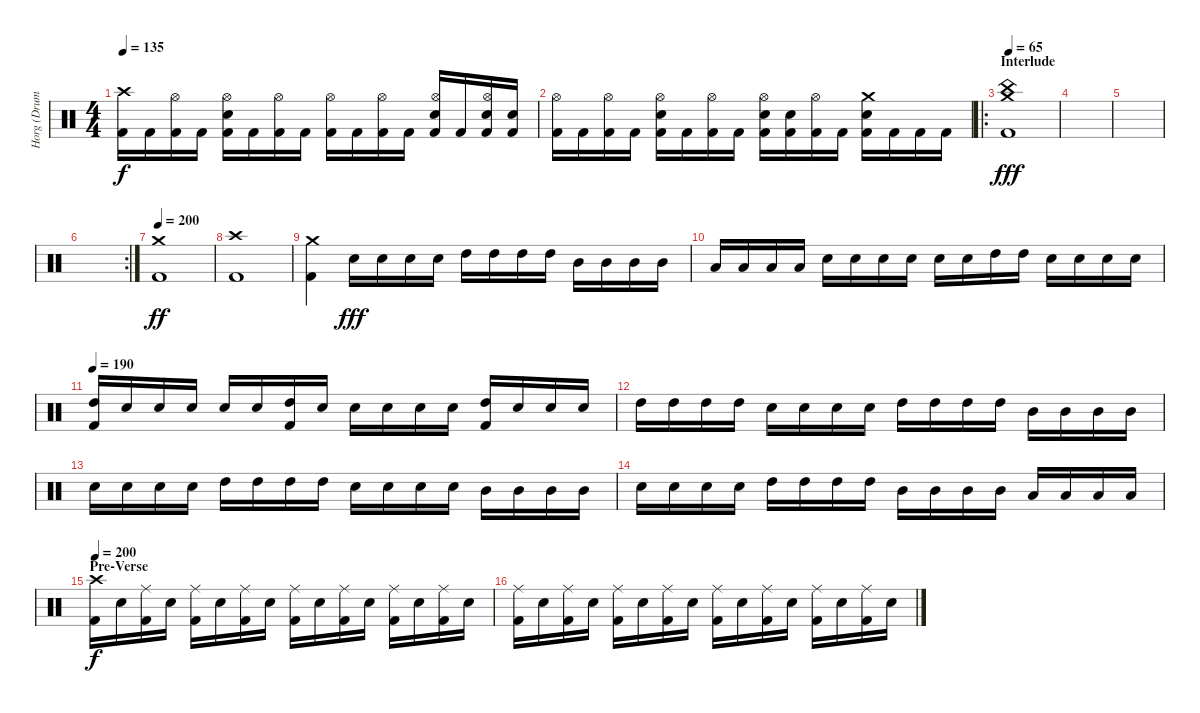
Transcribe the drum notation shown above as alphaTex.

\track ("Horg (Drums)" "Horg (Drum") {instrument percussion}
\staff {score}
\articulation defaults
\ts (4 4)
\tempo 135
\clef neutral
\ks c
("Crash high (hit)" "Kick (hit) 2").16{dy f} "Kick (hit) 2".16 ("Hi-Hat (open)" "Kick (hit) 2").16 "Kick (hit) 2".16 ("Hi-Hat (open)" "Electric Snare (hit)" "Kick (hit) 2").16 "Kick (hit) 2".16 ("Hi-Hat (open)" "Kick (hit) 2").16 "Kick (hit) 2".16 ("Hi-Hat (open)" "Kick (hit) 2").16 "Kick (hit) 2".16 ("Hi-Hat (open)" "Kick (hit) 2").16 "Kick (hit) 2".16 ("Hi-Hat (open)" "Electric Snare (hit)" "Kick (hit) 2").16 "Kick (hit) 2".16 ("Hi-Hat (open)" "Electric Snare (hit)" "Kick (hit) 2").16 ("Electric Snare (hit)" "Kick (hit) 2").16 |
("Hi-Hat (open)" "Kick (hit) 2").16 "Kick (hit) 2".16 ("Hi-Hat (open)" "Kick (hit) 2").16 "Kick (hit) 2".16 ("Hi-Hat (open)" "Electric Snare (hit)" "Kick (hit) 2").16 "Kick (hit) 2".16 ("Hi-Hat (open)" "Kick (hit) 2").16 "Kick (hit) 2".16 ("Hi-Hat (open)" "Electric Snare (hit)" "Kick (hit) 2").16 ("Electric Snare (hit)" "Kick (hit) 2").16 ("Hi-Hat (open)" "Kick (hit) 2").16 "Kick (hit) 2".16 ("Crash medium (hit)" "Electric Snare (hit)" "Kick (hit) 2").16 "Kick (hit) 2".16 "Kick (hit) 2".16 "Kick (hit) 2".16 |
\ro
\section ("" "Interlude")
\tempo 65
("Crash medium (hit)" "China (hit)" "Kick (hit) 2").1{dy fff} |
|
|
\rc 2
|
\tempo 200
("Crash medium (hit)" "Kick (hit) 2").1{dy ff} |
("Crash high (hit)" "Kick (hit) 2").1 |
("Crash medium (hit)" "Kick (hit) 2").4 "Electric Snare (hit)".16{dy fff} "Electric Snare (hit)".16 "Electric Snare (hit)".16 "Electric Snare (hit)".16 "High Tom (hit)".16 "High Tom (hit)".16 "High Tom (hit)".16 "High Tom (hit)".16 "Mid Tom (hit)".16 "Mid Tom (hit)".16 "Mid Tom (hit)".16 "Mid Tom (hit)".16 |
"Low Tom (hit)".16 "Low Tom (hit)".16 "Low Tom (hit)".16 "Low Tom (hit)".16 "Electric Snare (hit)".16 "Electric Snare (hit)".16 "Electric Snare (hit)".16 "Electric Snare (hit)".16 "Electric Snare (hit)".16 "Electric Snare (hit)".16 "High Tom (hit)".16 "High Tom (hit)".16 "Electric Snare (hit)".16 "Electric Snare (hit)".16 "Electric Snare (hit)".16 "Electric Snare (hit)".16 |
\tempo 190
("High Tom (hit)" "Kick (hit) 2").16 "Electric Snare (hit)".16 "Electric Snare (hit)".16 "Electric Snare (hit)".16 "Electric Snare (hit)".16 "Electric Snare (hit)".16 ("High Tom (hit)" "Kick (hit) 2").16 "Electric Snare (hit)".16 "Electric Snare (hit)".16 "Electric Snare (hit)".16 "Electric Snare (hit)".16 "Electric Snare (hit)".16 ("High Tom (hit)" "Kick (hit) 2").16 "Electric Snare (hit)".16 "Electric Snare (hit)".16 "Electric Snare (hit)".16 |
"High Tom (hit)".16 "High Tom (hit)".16 "High Tom (hit)".16 "High Tom (hit)".16 "Electric Snare (hit)".16 "Electric Snare (hit)".16 "Electric Snare (hit)".16 "Electric Snare (hit)".16 "High Tom (hit)".16 "High Tom (hit)".16 "High Tom (hit)".16 "High Tom (hit)".16 "Mid Tom (hit)".16 "Mid Tom (hit)".16 "Mid Tom (hit)".16 "Mid Tom (hit)".16 |
"Electric Snare (hit)".16 "Electric Snare (hit)".16 "Electric Snare (hit)".16 "Electric Snare (hit)".16 "High Tom (hit)".16 "High Tom (hit)".16 "High Tom (hit)".16 "High Tom (hit)".16 "Electric Snare (hit)".16 "Electric Snare (hit)".16 "Electric Snare (hit)".16 "Electric Snare (hit)".16 "Mid Tom (hit)".16 "Mid Tom (hit)".16 "Mid Tom (hit)".16 "Mid Tom (hit)".16 |
"Electric Snare (hit)".16 "Electric Snare (hit)".16 "Electric Snare (hit)".16 "Electric Snare (hit)".16 "High Tom (hit)".16 "High Tom (hit)".16 "High Tom (hit)".16 "High Tom (hit)".16 "Mid Tom (hit)".16 "Mid Tom (hit)".16 "Mid Tom (hit)".16 "Mid Tom (hit)".16 "Low Tom (hit)".16 "Low Tom (hit)".16 "Low Tom (hit)".16 "Low Tom (hit)".16 |
\section ("" "Pre-Verse")
\tempo 200
("Crash high (hit)" "Kick (hit) 2").16{dy f} "Electric Snare (hit)".16 ("Ride (middle)" "Kick (hit) 2").16 "Electric Snare (hit)".16 ("Ride (middle)" "Kick (hit) 2").16 "Electric Snare (hit)".16 ("Ride (middle)" "Kick (hit) 2").16 "Electric Snare (hit)".16 ("Ride (middle)" "Kick (hit) 2").16 "Electric Snare (hit)".16 ("Ride (middle)" "Kick (hit) 2").16 "Electric Snare (hit)".16 ("Ride (middle)" "Kick (hit) 2").16 "Electric Snare (hit)".16 ("Ride (middle)" "Kick (hit) 2").16 "Electric Snare (hit)".16 |
("Ride (middle)" "Kick (hit) 2").16 "Electric Snare (hit)".16 ("Ride (middle)" "Kick (hit) 2").16 "Electric Snare (hit)".16 ("Ride (middle)" "Kick (hit) 2").16 "Electric Snare (hit)".16 ("Ride (middle)" "Kick (hit) 2").16 "Electric Snare (hit)".16 ("Ride (middle)" "Kick (hit) 2").16 "Electric Snare (hit)".16 ("Ride (middle)" "Kick (hit) 2").16 "Electric Snare (hit)".16 ("Ride (middle)" "Kick (hit) 2").16 "Electric Snare (hit)".16 ("Ride (middle)" "Kick (hit) 2").16 "Electric Snare (hit)".16
